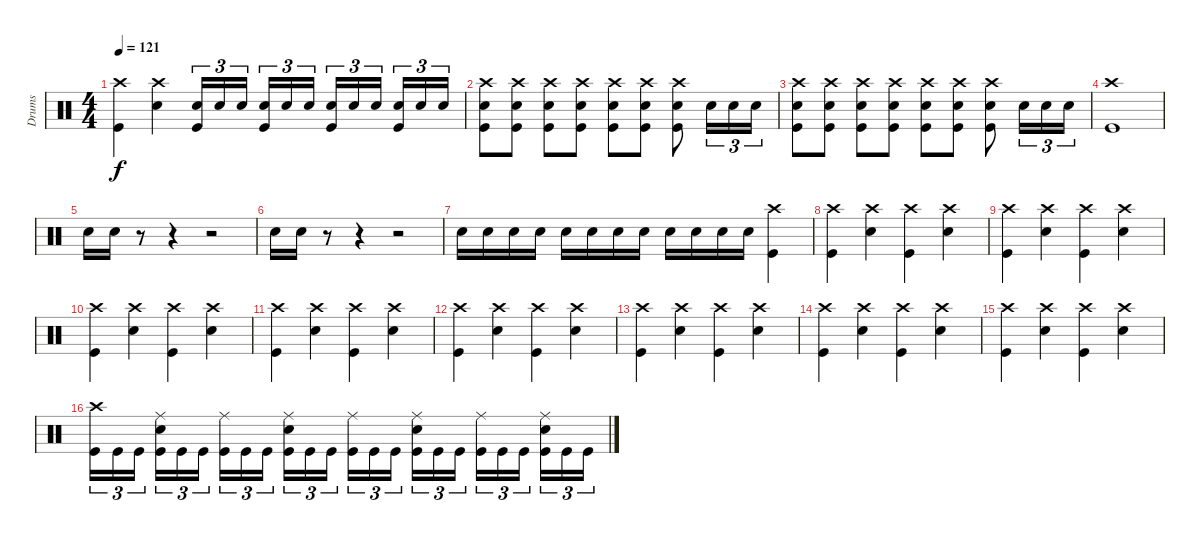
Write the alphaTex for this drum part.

\track ("Drums" "Drums") {instrument percussion}
\staff {score}
\articulation defaults
\ts (4 4)
\tempo 121
\clef neutral
\ks c
("Crash high (hit)" "Kick (hit)").4{dy f} ("Crash high (hit)" "Electric Snare (hit)").4 ("Electric Snare (hit)" "Kick (hit)").16{tu (3 2)} "Electric Snare (hit)".16{tu (3 2)} "Electric Snare (hit)".16{tu (3 2)} ("Electric Snare (hit)" "Kick (hit)").16{tu (3 2)} "Electric Snare (hit)".16{tu (3 2)} "Electric Snare (hit)".16{tu (3 2)} ("Electric Snare (hit)" "Kick (hit)").16{tu (3 2)} "Electric Snare (hit)".16{tu (3 2)} "Electric Snare (hit)".16{tu (3 2)} ("Electric Snare (hit)" "Kick (hit)").16{tu (3 2)} "Electric Snare (hit)".16{tu (3 2)} "Electric Snare (hit)".16{tu (3 2)} |
("Crash high (hit)" "Electric Snare (hit)" "Kick (hit)").8 ("Crash high (hit)" "Electric Snare (hit)" "Kick (hit)").8 ("Crash high (hit)" "Electric Snare (hit)" "Kick (hit)").8 ("Crash high (hit)" "Electric Snare (hit)" "Kick (hit)").8 ("Crash high (hit)" "Electric Snare (hit)" "Kick (hit)").8 ("Crash high (hit)" "Electric Snare (hit)" "Kick (hit)").8 ("Crash high (hit)" "Electric Snare (hit)" "Kick (hit)").8 "Electric Snare (hit)".16{tu (3 2)} "Electric Snare (hit)".16{tu (3 2)} "Electric Snare (hit)".16{tu (3 2)} |
("Crash high (hit)" "Electric Snare (hit)" "Kick (hit)").8 ("Crash high (hit)" "Electric Snare (hit)" "Kick (hit)").8 ("Crash high (hit)" "Electric Snare (hit)" "Kick (hit)").8 ("Crash high (hit)" "Electric Snare (hit)" "Kick (hit)").8 ("Crash high (hit)" "Electric Snare (hit)" "Kick (hit)").8 ("Crash high (hit)" "Electric Snare (hit)" "Kick (hit)").8 ("Crash high (hit)" "Electric Snare (hit)" "Kick (hit)").8 "Electric Snare (hit)".16{tu (3 2)} "Electric Snare (hit)".16{tu (3 2)} "Electric Snare (hit)".16{tu (3 2)} |
("Crash high (hit)" "Kick (hit)").1 |
"Electric Snare (hit)".16 "Electric Snare (hit)".16 r.8 r.4 r.2 |
"Electric Snare (hit)".16 "Electric Snare (hit)".16 r.8 r.4 r.2 |
"Electric Snare (hit)".16 "Electric Snare (hit)".16 "Electric Snare (hit)".16 "Electric Snare (hit)".16 "Electric Snare (hit)".16 "Electric Snare (hit)".16 "Electric Snare (hit)".16 "Electric Snare (hit)".16 "Electric Snare (hit)".16 "Electric Snare (hit)".16 "Electric Snare (hit)".16 "Electric Snare (hit)".16 ("Crash high (hit)" "Kick (hit)").4 |
("Crash high (hit)" "Kick (hit)").4 ("Crash high (hit)" "Electric Snare (hit)").4 ("Crash high (hit)" "Kick (hit)").4 ("Crash high (hit)" "Electric Snare (hit)").4 |
("Crash high (hit)" "Kick (hit)").4 ("Crash high (hit)" "Electric Snare (hit)").4 ("Crash high (hit)" "Kick (hit)").4 ("Crash high (hit)" "Electric Snare (hit)").4 |
("Crash high (hit)" "Kick (hit)").4 ("Crash high (hit)" "Electric Snare (hit)").4 ("Crash high (hit)" "Kick (hit)").4 ("Crash high (hit)" "Electric Snare (hit)").4 |
("Crash high (hit)" "Kick (hit)").4 ("Crash high (hit)" "Electric Snare (hit)").4 ("Crash high (hit)" "Kick (hit)").4 ("Crash high (hit)" "Electric Snare (hit)").4 |
("Crash high (hit)" "Kick (hit)").4 ("Crash high (hit)" "Electric Snare (hit)").4 ("Crash high (hit)" "Kick (hit)").4 ("Crash high (hit)" "Electric Snare (hit)").4 |
("Crash high (hit)" "Kick (hit)").4 ("Crash high (hit)" "Electric Snare (hit)").4 ("Crash high (hit)" "Kick (hit)").4 ("Crash high (hit)" "Electric Snare (hit)").4 |
("Crash high (hit)" "Kick (hit)").4 ("Crash high (hit)" "Electric Snare (hit)").4 ("Crash high (hit)" "Kick (hit)").4 ("Crash high (hit)" "Electric Snare (hit)").4 |
("Crash high (hit)" "Kick (hit)").4 ("Crash high (hit)" "Electric Snare (hit)").4 ("Crash high (hit)" "Kick (hit)").4 ("Crash high (hit)" "Electric Snare (hit)").4 |
("Crash high (hit)" "Kick (hit)").16{tu (3 2)} "Kick (hit)".16{tu (3 2)} "Kick (hit)".16{tu (3 2)} ("Ride (middle)" "Electric Snare (hit)" "Kick (hit)").16{tu (3 2)} "Kick (hit)".16{tu (3 2)} "Kick (hit)".16{tu (3 2)} ("Ride (middle)" "Kick (hit)").16{tu (3 2)} "Kick (hit)".16{tu (3 2)} "Kick (hit)".16{tu (3 2)} ("Ride (middle)" "Electric Snare (hit)" "Kick (hit)").16{tu (3 2)} "Kick (hit)".16{tu (3 2)} "Kick (hit)".16{tu (3 2)} ("Ride (middle)" "Kick (hit)").16{tu (3 2)} "Kick (hit)".16{tu (3 2)} "Kick (hit)".16{tu (3 2)} ("Ride (middle)" "Electric Snare (hit)" "Kick (hit)").16{tu (3 2)} "Kick (hit)".16{tu (3 2)} "Kick (hit)".16{tu (3 2)} ("Ride (middle)" "Kick (hit)").16{tu (3 2)} "Kick (hit)".16{tu (3 2)} "Kick (hit)".16{tu (3 2)} ("Ride (middle)" "Electric Snare (hit)" "Kick (hit)").16{tu (3 2)} "Kick (hit)".16{tu (3 2)} "Kick (hit)".16{tu (3 2)}
